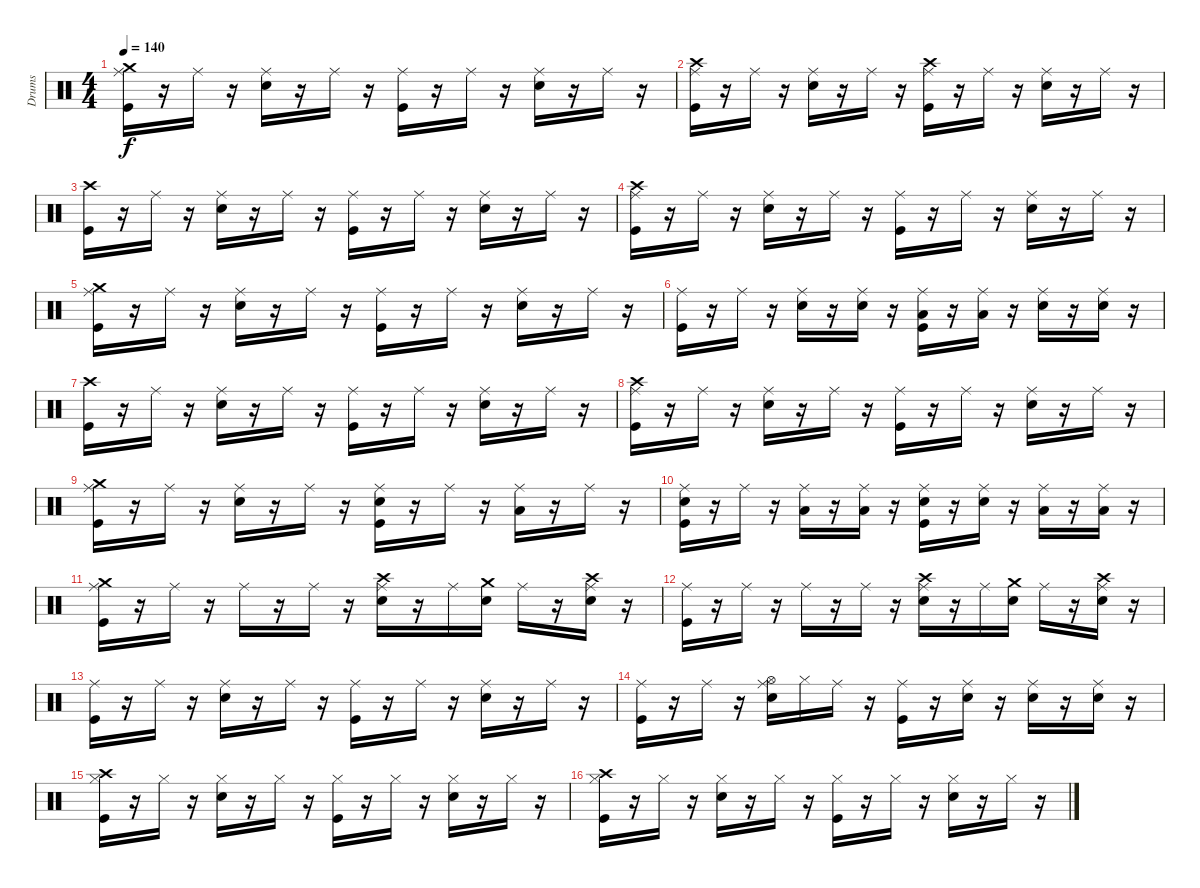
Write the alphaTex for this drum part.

\track ("Drums" "Drums") {instrument percussion}
\staff {score}
\articulation defaults
\ts (4 4)
\tempo 140
\clef neutral
\ks c
("Kick (hit)" "Ride (middle)" "Crash medium (hit)").16{dy f} r.16 "Ride (middle)".16 r.16 ("Ride (middle)" "Snare (hit) 2").16 r.16 "Ride (middle)".16 r.16 ("Kick (hit)" "Ride (middle)").16 r.16 "Ride (middle)".16 r.16 ("Ride (middle)" "Snare (hit) 2").16 r.16 "Ride (middle)".16 r.16 |
("Crash high (hit)" "Kick (hit)" "Ride (middle)").16 r.16 "Ride (middle)".16 r.16 ("Ride (middle)" "Snare (hit) 2").16 r.16 "Ride (middle)".16 r.16 ("Crash high (hit)" "Kick (hit)" "Ride (middle)").16 r.16 "Ride (middle)".16 r.16 ("Snare (hit) 2" "Ride (middle)").16 r.16 "Ride (middle)".16 r.16 |
("Crash high (hit)" "Kick (hit)").16 r.16 "Ride (middle)".16 r.16 ("Ride (middle)" "Snare (hit) 2").16 r.16 "Ride (middle)".16 r.16 ("Ride (middle)" "Kick (hit)").16 r.16 "Ride (middle)".16 r.16 ("Snare (hit) 2" "Ride (middle)").16 r.16 "Ride (middle)".16 r.16 |
("Kick (hit)" "Crash high (hit)" "Ride (middle)").16 r.16 "Ride (middle)".16 r.16 ("Snare (hit) 2" "Ride (middle)").16 r.16 "Ride (middle)".16 r.16 ("Kick (hit)" "Ride (middle)").16 r.16 "Ride (middle)".16 r.16 ("Snare (hit) 2" "Ride (middle)").16 r.16 "Ride (middle)".16 r.16 |
("Crash medium (hit)" "Ride (middle)" "Kick (hit)").16 r.16 "Ride (middle)".16 r.16 ("Snare (hit) 2" "Ride (middle)").16 r.16 "Ride (middle)".16 r.16 ("Kick (hit)" "Ride (middle)").16 r.16 "Ride (middle)".16 r.16 ("Snare (hit) 2" "Ride (middle)").16 r.16 "Ride (middle)".16 r.16 |
("Ride (middle)" "Kick (hit)").16 r.16 "Ride (middle)".16 r.16 ("Snare (hit) 2" "Ride (middle)").16 r.16 ("Snare (hit) 2" "Ride (middle)").16 r.16 ("Ride (middle)" "Kick (hit)" "Low Floor Tom (hit)").16 r.16 ("Ride (middle)" "Low Floor Tom (hit)").16 r.16 ("Snare (hit) 2" "Ride (middle)").16 r.16 ("Ride (middle)" "Snare (hit) 2").16 r.16 |
("Kick (hit)" "Crash high (hit)").16 r.16 "Ride (middle)".16 r.16 ("Ride (middle)" "Snare (hit) 2").16 r.16 "Ride (middle)".16 r.16 ("Ride (middle)" "Kick (hit)").16 r.16 "Ride (middle)".16 r.16 ("Snare (hit) 2" "Ride (middle)").16 r.16 "Ride (middle)".16 r.16 |
("Kick (hit)" "Ride (middle)" "Crash high (hit)").16 r.16 "Ride (middle)".16 r.16 ("Ride (middle)" "Snare (hit) 2").16 r.16 "Ride (middle)".16 r.16 ("Ride (middle)" "Kick (hit)").16 r.16 "Ride (middle)".16 r.16 ("Ride (middle)" "Snare (hit) 2").16 r.16 "Ride (middle)".16 r.16 |
("Kick (hit)" "Crash medium (hit)" "Ride (middle)").16 r.16 "Ride (middle)".16 r.16 ("Ride (middle)" "Snare (hit) 2").16 r.16 "Ride (middle)".16 r.16 ("Snare (hit) 2" "Ride (middle)" "Kick (hit)").16 r.16 "Ride (middle)".16 r.16 ("Ride (middle)" "Low Floor Tom (hit)").16 r.16 "Ride (middle)".16 r.16 |
("Snare (hit) 2" "Kick (hit)" "Ride (middle)").16 r.16 "Ride (middle)".16 r.16 ("Ride (middle)" "Low Floor Tom (hit)").16 r.16 ("Low Floor Tom (hit)" "Ride (middle)").16 r.16 ("Kick (hit)" "Snare (hit) 2" "Ride (middle)").16 r.16 ("Snare (hit) 2" "Ride (middle)").16 r.16 ("Ride (middle)" "Low Floor Tom (hit)").16 r.16 ("Low Floor Tom (hit)" "Ride (middle)").16 r.16 |
("Ride (middle)" "Crash medium (hit)" "Kick (hit)").16 r.16 "Ride (middle)".16 r.16 "Ride (middle)".16 r.16 "Ride (middle)".16 r.16 ("Ride (middle)" "Crash high (hit)" "Snare (hit) 2").16 r.16 "Ride (middle)".16 ("Snare (hit) 2" "Crash medium (hit)").16 "Ride (middle)".16 r.16 ("Ride (middle)" "Snare (hit) 2" "Crash high (hit)").16 r.16 |
("Ride (middle)" "Kick (hit)").16 r.16 "Ride (middle)".16 r.16 "Ride (middle)".16 r.16 "Ride (middle)".16 r.16 ("Ride (middle)" "Crash high (hit)" "Snare (hit) 2").16 r.16 "Ride (middle)".16 ("Crash medium (hit)" "Snare (hit) 2").16 "Ride (middle)".16 r.16 ("Snare (hit) 2" "Crash high (hit)" "Ride (middle)").16 r.16 |
("Ride (middle)" "Kick (hit)").16 r.16 "Ride (middle)".16 r.16 ("Ride (middle)" "Snare (hit) 2").16 r.16 "Ride (middle)".16 r.16 ("Kick (hit)" "Ride (middle)").16 r.16 "Ride (middle)".16 r.16 ("Snare (hit) 2" "Ride (middle)").16 r.16 "Ride (middle)".16 r.16 |
("Kick (hit)" "Ride (middle)").16 r.16 "Ride (middle)".16 r.16 ("Snare (hit) 2" "Ride (middle)" "Hi-Hat (open)").16 "Hi-Hat (closed)".16 "Ride (middle)".16 r.16 ("Kick (hit)" "Ride (middle)").16 r.16 ("Ride (middle)" "Snare (hit) 2").16 r.16 ("Snare (hit) 2" "Ride (middle)").16 r.16 ("Snare (hit) 2" "Ride (middle)").16 r.16 |
("Crash high (hit)" "Kick (hit)" "Hi-Hat (closed)").16 r.16 "Hi-Hat (closed)".16 r.16 ("Hi-Hat (closed)" "Snare (hit) 2").16 r.16 "Hi-Hat (closed)".16 r.16 ("Kick (hit)" "Hi-Hat (closed)").16 r.16 "Hi-Hat (closed)".16 r.16 ("Snare (hit) 2" "Hi-Hat (closed)").16 r.16 "Hi-Hat (closed)".16 r.16 |
("Crash high (hit)" "Hi-Hat (closed)" "Kick (hit)").16 r.16 "Hi-Hat (closed)".16 r.16 ("Hi-Hat (closed)" "Snare (hit) 2").16 r.16 "Hi-Hat (closed)".16 r.16 ("Hi-Hat (closed)" "Kick (hit)").16 r.16 "Hi-Hat (closed)".16 r.16 ("Snare (hit) 2" "Hi-Hat (closed)").16 r.16 "Hi-Hat (closed)".16 r.16
